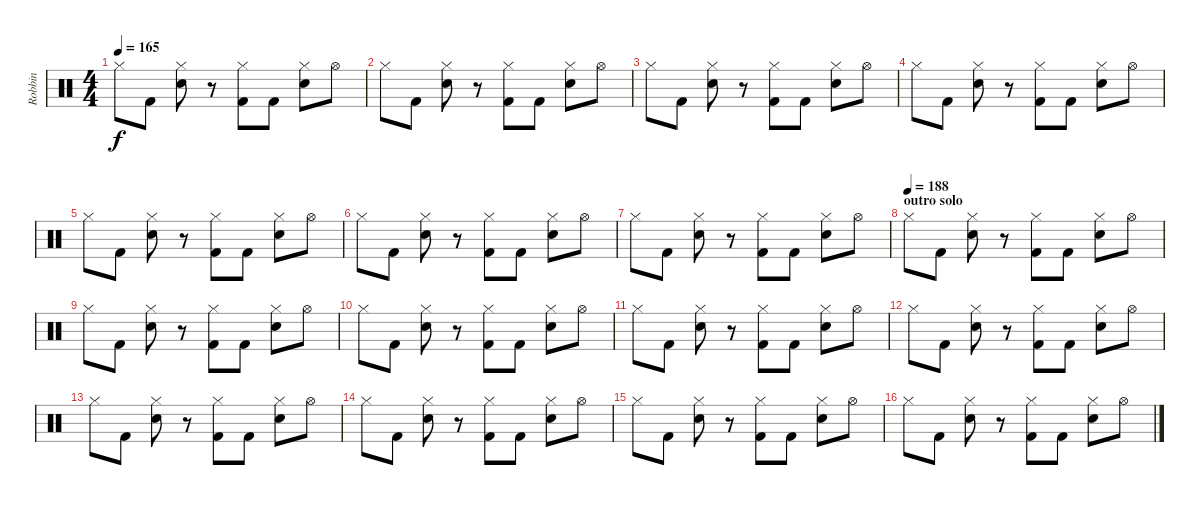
\track ("Robbin" "Robbin") {instrument percussion}
\staff {score}
\articulation defaults
\ts (4 4)
\tempo 165
\clef neutral
\ks c "Hi-Hat (closed)".8{dy f} "Kick (hit) 2".8
("Hi-Hat (closed)" "Snare (hit) 2").8 r.8 ("Hi-Hat (closed)" "Kick (hit) 2").8 "Kick (hit) 2".8 ("Hi-Hat (closed)" "Snare (hit) 2").8 "Hi-Hat (open)".8 |
"Hi-Hat (closed)".8 "Kick (hit) 2".8 ("Hi-Hat (closed)" "Snare (hit) 2").8 r.8 ("Hi-Hat (closed)" "Kick (hit) 2").8 "Kick (hit) 2".8 ("Hi-Hat (closed)" "Snare (hit) 2").8 "Hi-Hat (open)".8 |
"Hi-Hat (closed)".8 "Kick (hit) 2".8 ("Hi-Hat (closed)" "Snare (hit) 2").8 r.8 ("Hi-Hat (closed)" "Kick (hit) 2").8 "Kick (hit) 2".8 ("Hi-Hat (closed)" "Snare (hit) 2").8 "Hi-Hat (open)".8 |
"Hi-Hat (closed)".8 "Kick (hit) 2".8 ("Hi-Hat (closed)" "Snare (hit) 2").8 r.8 ("Hi-Hat (closed)" "Kick (hit) 2").8 "Kick (hit) 2".8 ("Hi-Hat (closed)" "Snare (hit) 2").8 "Hi-Hat (open)".8 |
"Hi-Hat (closed)".8 "Kick (hit) 2".8 ("Hi-Hat (closed)" "Snare (hit) 2").8 r.8 ("Hi-Hat (closed)" "Kick (hit) 2").8 "Kick (hit) 2".8 ("Hi-Hat (closed)" "Snare (hit) 2").8 "Hi-Hat (open)".8 |
"Hi-Hat (closed)".8 "Kick (hit) 2".8 ("Hi-Hat (closed)" "Snare (hit) 2").8 r.8 ("Hi-Hat (closed)" "Kick (hit) 2").8 "Kick (hit) 2".8 ("Hi-Hat (closed)" "Snare (hit) 2").8 "Hi-Hat (open)".8 |
"Hi-Hat (closed)".8 "Kick (hit) 2".8 ("Hi-Hat (closed)" "Snare (hit) 2").8 r.8 ("Hi-Hat (closed)" "Kick (hit) 2").8 "Kick (hit) 2".8 ("Hi-Hat (closed)" "Snare (hit) 2").8 "Hi-Hat (open)".8 |
\section ("" "outro solo")
\tempo (188)
"Hi-Hat (closed)".8 "Kick (hit) 2".8 ("Hi-Hat (closed)" "Snare (hit) 2").8 r.8 ("Hi-Hat (closed)" "Kick (hit) 2").8 "Kick (hit) 2".8 ("Hi-Hat (closed)" "Snare (hit) 2").8 "Hi-Hat (open)".8 |
"Hi-Hat (closed)".8 "Kick (hit) 2".8 ("Hi-Hat (closed)" "Snare (hit) 2").8 r.8 ("Hi-Hat (closed)" "Kick (hit) 2").8 "Kick (hit) 2".8 ("Hi-Hat (closed)" "Snare (hit) 2").8 "Hi-Hat (open)".8 |
"Hi-Hat (closed)".8 "Kick (hit) 2".8 ("Hi-Hat (closed)" "Snare (hit) 2").8 r.8 ("Hi-Hat (closed)" "Kick (hit) 2").8 "Kick (hit) 2".8 ("Hi-Hat (closed)" "Snare (hit) 2").8 "Hi-Hat (open)".8 |
"Hi-Hat (closed)".8 "Kick (hit) 2".8 ("Hi-Hat (closed)" "Snare (hit) 2").8 r.8 ("Hi-Hat (closed)" "Kick (hit) 2").8 "Kick (hit) 2".8 ("Hi-Hat (closed)" "Snare (hit) 2").8 "Hi-Hat (open)".8 |
"Hi-Hat (closed)".8 "Kick (hit) 2".8 ("Hi-Hat (closed)" "Snare (hit) 2").8 r.8 ("Hi-Hat (closed)" "Kick (hit) 2").8 "Kick (hit) 2".8 ("Hi-Hat (closed)" "Snare (hit) 2").8 "Hi-Hat (open)".8 |
"Hi-Hat (closed)".8 "Kick (hit) 2".8 ("Hi-Hat (closed)" "Snare (hit) 2").8 r.8 ("Hi-Hat (closed)" "Kick (hit) 2").8 "Kick (hit) 2".8 ("Hi-Hat (closed)" "Snare (hit) 2").8 "Hi-Hat (open)".8 |
"Hi-Hat (closed)".8 "Kick (hit) 2".8 ("Hi-Hat (closed)" "Snare (hit) 2").8 r.8 ("Hi-Hat (closed)" "Kick (hit) 2").8 "Kick (hit) 2".8 ("Hi-Hat (closed)" "Snare (hit) 2").8 "Hi-Hat (open)".8 |
"Hi-Hat (closed)".8 "Kick (hit) 2".8 ("Hi-Hat (closed)" "Snare (hit) 2").8 r.8 ("Hi-Hat (closed)" "Kick (hit) 2").8 "Kick (hit) 2".8 ("Hi-Hat (closed)" "Snare (hit) 2").8 "Hi-Hat (open)".8 |
"Hi-Hat (closed)".8 "Kick (hit) 2".8 ("Hi-Hat (closed)" "Snare (hit) 2").8 r.8 ("Hi-Hat (closed)" "Kick (hit) 2").8 "Kick (hit) 2".8 ("Hi-Hat (closed)" "Snare (hit) 2").8 "Hi-Hat (open)".8
